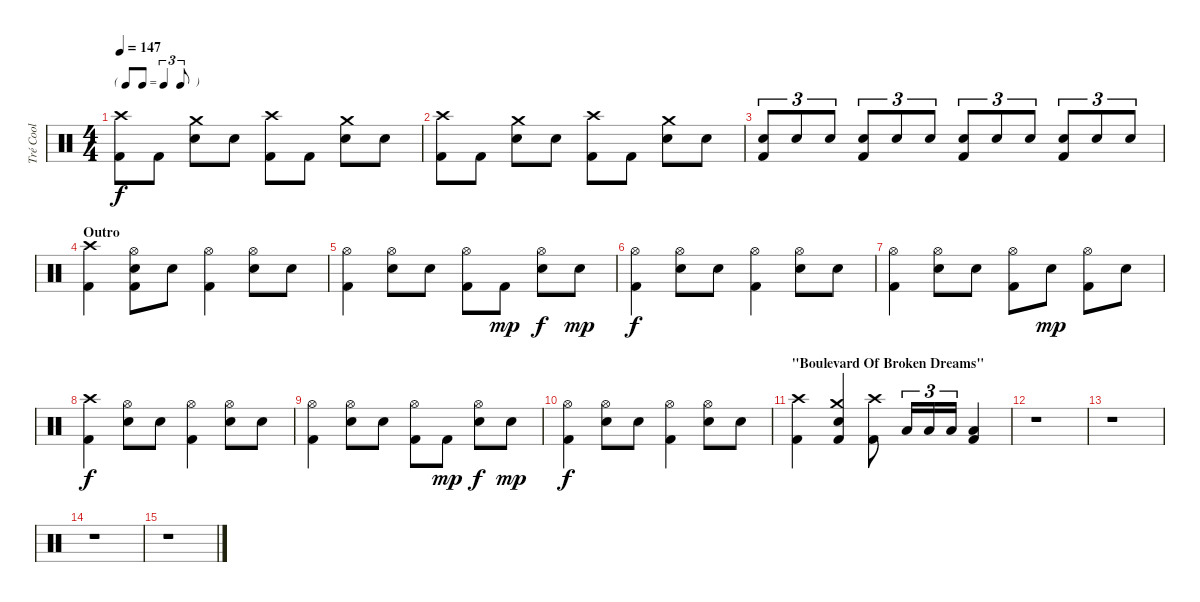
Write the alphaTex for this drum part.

\track ("Tré Cool" "Tré Cool") {instrument percussion}
\staff {score}
\articulation defaults
\ts (4 4)
\tf triplet8th
\tempo 147
\clef neutral
\ks c
("Crash high (hit)" "Kick (hit) 2").8{dy f} "Kick (hit) 2".8 ("Crash medium (hit)" "Snare (hit) 2").8 "Snare (hit) 2".8 ("Crash high (hit)" "Kick (hit) 2").8 "Kick (hit) 2".8 ("Crash medium (hit)" "Snare (hit) 2").8 "Snare (hit) 2".8 |
("Crash high (hit)" "Kick (hit) 2").8 "Kick (hit) 2".8 ("Crash medium (hit)" "Snare (hit) 2").8 "Snare (hit) 2".8 ("Crash high (hit)" "Kick (hit) 2").8 "Kick (hit) 2".8 ("Crash medium (hit)" "Snare (hit) 2").8 "Snare (hit) 2".8 |
("Snare (hit) 2" "Kick (hit) 2").8{tu (3 2)} "Snare (hit) 2".8{tu (3 2)} "Snare (hit) 2".8{tu (3 2)} ("Snare (hit) 2" "Kick (hit) 2").8{tu (3 2)} "Snare (hit) 2".8{tu (3 2)} "Snare (hit) 2".8{tu (3 2)} ("Snare (hit) 2" "Kick (hit) 2").8{tu (3 2)} "Snare (hit) 2".8{tu (3 2)} "Snare (hit) 2".8{tu (3 2)} ("Snare (hit) 2" "Kick (hit) 2").8{tu (3 2)} "Snare (hit) 2".8{tu (3 2)} "Snare (hit) 2".8{tu (3 2)} |
\section ("" "Outro")
("Crash high (hit)" "Kick (hit) 2").4 ("Hi-Hat (open)" "Snare (hit) 2" "Kick (hit) 2").8 "Snare (hit) 2".8 ("Hi-Hat (open)" "Kick (hit) 2").4 ("Hi-Hat (open)" "Snare (hit) 2").8 "Snare (hit) 2".8 |
("Hi-Hat (open)" "Kick (hit) 2").4 ("Hi-Hat (open)" "Snare (hit) 2").8 "Snare (hit) 2".8 ("Hi-Hat (open)" "Kick (hit) 2").8 "Kick (hit) 2".8{dy mp} ("Hi-Hat (open)" "Snare (hit) 2").8{dy f} "Snare (hit) 2".8{dy mp} |
("Hi-Hat (open)" "Kick (hit) 2").4{dy f} ("Hi-Hat (open)" "Snare (hit) 2").8 "Snare (hit) 2".8 ("Hi-Hat (open)" "Kick (hit) 2").4 ("Hi-Hat (open)" "Snare (hit) 2").8 "Snare (hit) 2".8 |
("Hi-Hat (open)" "Kick (hit) 2").4 ("Hi-Hat (open)" "Snare (hit) 2").8 "Snare (hit) 2".8 ("Hi-Hat (open)" "Kick (hit) 2").8 "Snare (hit) 2".8{dy mp} ("Hi-Hat (open)" "Kick (hit) 2").8 "Snare (hit) 2".8 |
("Crash high (hit)" "Kick (hit) 2").4{dy f} ("Hi-Hat (open)" "Snare (hit) 2").8 "Snare (hit) 2".8 ("Hi-Hat (open)" "Kick (hit) 2").4 ("Hi-Hat (open)" "Snare (hit) 2").8 "Snare (hit) 2".8 |
("Hi-Hat (open)" "Kick (hit) 2").4 ("Hi-Hat (open)" "Snare (hit) 2").8 "Snare (hit) 2".8 ("Hi-Hat (open)" "Kick (hit) 2").8 "Kick (hit) 2".8{dy mp} ("Hi-Hat (open)" "Snare (hit) 2").8{dy f} "Snare (hit) 2".8{dy mp} |
("Hi-Hat (open)" "Kick (hit) 2").4{dy f} ("Hi-Hat (open)" "Snare (hit) 2").8 "Snare (hit) 2".8 ("Hi-Hat (open)" "Kick (hit) 2").4 ("Hi-Hat (open)" "Snare (hit) 2").8 "Snare (hit) 2".8 |
\section ("" "\"Boulevard Of Broken Dreams\"")
("Crash high (hit)" "Kick (hit) 2").4 ("Crash medium (hit)" "Snare (hit) 2" "Kick (hit) 2").4 ("Crash high (hit)" "Kick (hit) 2").8 "Low Tom (hit)".16{tu (3 2)} "Low Tom (hit)".16{tu (3 2)} "Low Tom (hit)".16{tu (3 2)} ("Low Tom (hit)" "Kick (hit) 2").4 |
r.1 |
r.1 |
r.1 |
r.1
